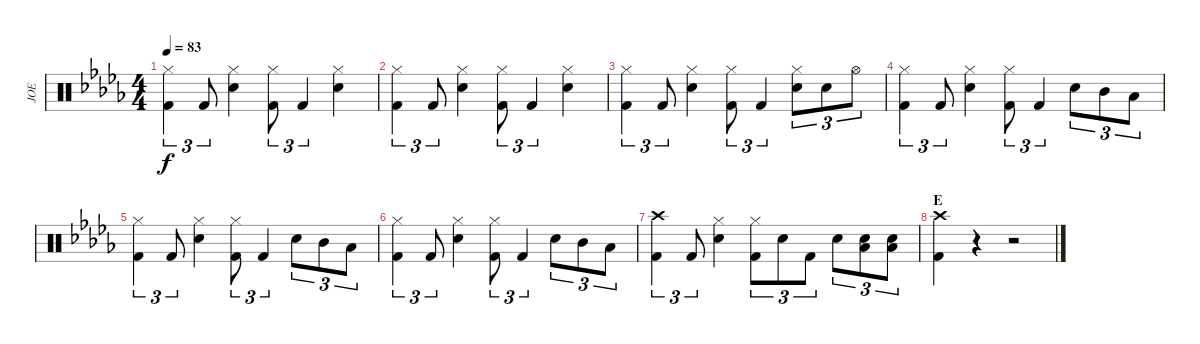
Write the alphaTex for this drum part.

\track ("JOE" "JOE") {instrument percussion}
\staff {score}
\articulation defaults
\ts (4 4)
\tempo 83
\clef neutral
\ks db
("Hi-Hat (closed)" "Kick (hit) 2").4{tu (3 2) dy f} "Kick (hit) 2".8{tu (3 2)} ("Hi-Hat (closed)" "Snare (hit) 2").4 ("Hi-Hat (closed)" "Kick (hit) 2").8{tu (3 2)} "Kick (hit) 2".4{tu (3 2)} ("Hi-Hat (closed)" "Snare (hit) 2").4 |
("Hi-Hat (closed)" "Kick (hit) 2").4{tu (3 2)} "Kick (hit) 2".8{tu (3 2)} ("Hi-Hat (closed)" "Snare (hit) 2").4 ("Hi-Hat (closed)" "Kick (hit) 2").8{tu (3 2)} "Kick (hit) 2".4{tu (3 2)} ("Hi-Hat (closed)" "Snare (hit) 2").4 |
("Hi-Hat (closed)" "Kick (hit) 2").4{tu (3 2)} "Kick (hit) 2".8{tu (3 2)} ("Hi-Hat (closed)" "Snare (hit) 2").4 ("Hi-Hat (closed)" "Kick (hit) 2").8{tu (3 2)} "Kick (hit) 2".4{tu (3 2)} ("Hi-Hat (closed)" "Snare (hit) 2").8{tu (3 2)} "Snare (hit) 2".8{tu (3 2)} "Hi-Hat (open)".8{tu (3 2)} |
("Hi-Hat (closed)" "Kick (hit) 2").4{tu (3 2)} "Kick (hit) 2".8{tu (3 2)} ("Hi-Hat (closed)" "Snare (hit) 2").4 ("Hi-Hat (closed)" "Kick (hit) 2").8{tu (3 2)} "Kick (hit) 2".4{tu (3 2)} "Snare (hit) 2".8{tu (3 2)} "Mid Tom (hit)".8{tu (3 2)} "Low Tom (hit)".8{tu (3 2)} |
("Hi-Hat (closed)" "Kick (hit) 2").4{tu (3 2)} "Kick (hit) 2".8{tu (3 2)} ("Hi-Hat (closed)" "Snare (hit) 2").4 ("Hi-Hat (closed)" "Kick (hit) 2").8{tu (3 2)} "Kick (hit) 2".4{tu (3 2)} "Snare (hit) 2".8{tu (3 2)} "Mid Tom (hit)".8{tu (3 2)} "Low Tom (hit)".8{tu (3 2)} |
("Hi-Hat (closed)" "Kick (hit) 2").4{tu (3 2)} "Kick (hit) 2".8{tu (3 2)} ("Hi-Hat (closed)" "Snare (hit) 2").4 ("Hi-Hat (closed)" "Kick (hit) 2").8{tu (3 2)} "Kick (hit) 2".4{tu (3 2)} "Snare (hit) 2".8{tu (3 2)} "Mid Tom (hit)".8{tu (3 2)} "Low Tom (hit)".8{tu (3 2)} |
("Crash high (hit)" "Kick (hit) 2").4{tu (3 2)} "Kick (hit) 2".8{tu (3 2)} ("Hi-Hat (closed)" "Snare (hit) 2").4 ("Hi-Hat (closed)" "Kick (hit) 2").8{tu (3 2)} "Snare (hit) 2".8{tu (3 2)} "Kick (hit) 2".8{tu (3 2)} "Snare (hit) 2".8{tu (3 2)} ("Snare (hit) 2" "Low Tom (hit)").8{tu (3 2)} ("Snare (hit) 2" "Low Tom (hit)").8{tu (3 2)} |
\section ("" "E")
("Crash high (hit)" "Kick (hit) 2").4 r.4 r.2
